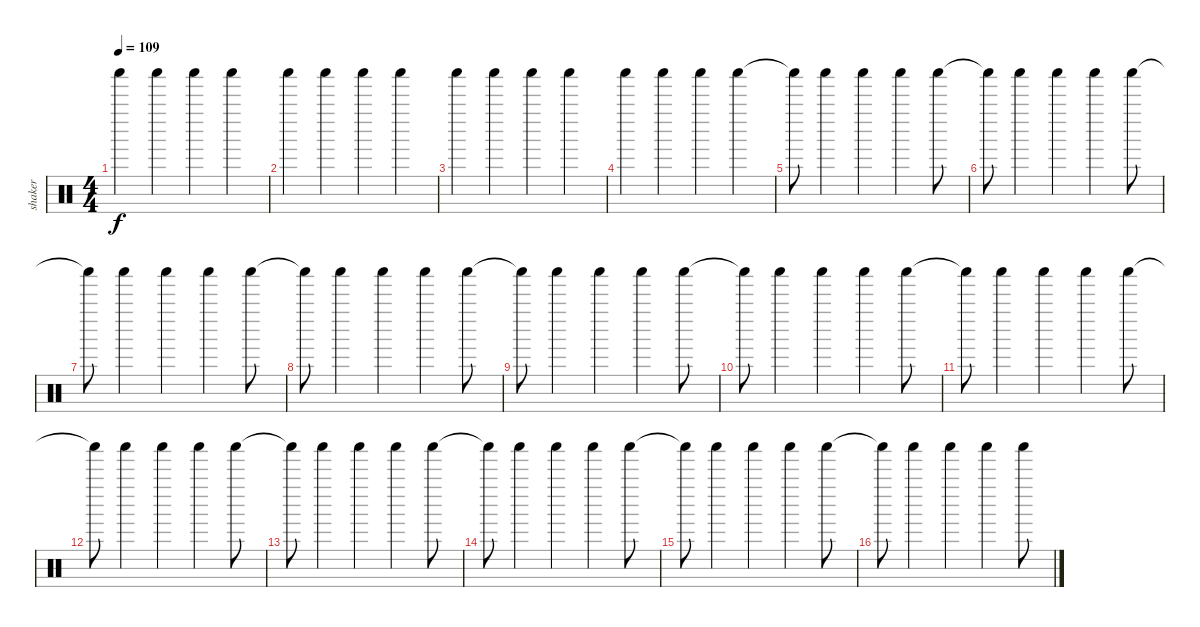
\track ("shaker" "shaker") {instrument percussion}
\staff {score}
\articulation defaults
\ts (4 4)
\tempo 109
\clef neutral
\ks c "Shaker (hit)".4{dy f} "Shaker (hit)".4 "Shaker (hit)".4 "Shaker (hit)".4
|
"Shaker (hit)".4 "Shaker (hit)".4 "Shaker (hit)".4 "Shaker (hit)".4 |
"Shaker (hit)".4 "Shaker (hit)".4 "Shaker (hit)".4 "Shaker (hit)".4 |
"Shaker (hit)".4 "Shaker (hit)".4 "Shaker (hit)".4 "Shaker (hit)".4 |
"Shaker (hit)"{t}.8 "Shaker (hit)".4 "Shaker (hit)".4 "Shaker (hit)".4 "Shaker (hit)".8 |
"Shaker (hit)"{t}.8 "Shaker (hit)".4 "Shaker (hit)".4 "Shaker (hit)".4 "Shaker (hit)".8 |
"Shaker (hit)"{t}.8 "Shaker (hit)".4 "Shaker (hit)".4 "Shaker (hit)".4 "Shaker (hit)".8 |
"Shaker (hit)"{t}.8 "Shaker (hit)".4 "Shaker (hit)".4 "Shaker (hit)".4 "Shaker (hit)".8 |
"Shaker (hit)"{t}.8 "Shaker (hit)".4 "Shaker (hit)".4 "Shaker (hit)".4 "Shaker (hit)".8 |
"Shaker (hit)"{t}.8 "Shaker (hit)".4 "Shaker (hit)".4 "Shaker (hit)".4 "Shaker (hit)".8 |
"Shaker (hit)"{t}.8 "Shaker (hit)".4 "Shaker (hit)".4 "Shaker (hit)".4 "Shaker (hit)".8 |
"Shaker (hit)"{t}.8 "Shaker (hit)".4 "Shaker (hit)".4 "Shaker (hit)".4 "Shaker (hit)".8 |
"Shaker (hit)"{t}.8 "Shaker (hit)".4 "Shaker (hit)".4 "Shaker (hit)".4 "Shaker (hit)".8 |
"Shaker (hit)"{t}.8 "Shaker (hit)".4 "Shaker (hit)".4 "Shaker (hit)".4 "Shaker (hit)".8 |
"Shaker (hit)"{t}.8 "Shaker (hit)".4 "Shaker (hit)".4 "Shaker (hit)".4 "Shaker (hit)".8 |
"Shaker (hit)"{t}.8 "Shaker (hit)".4 "Shaker (hit)".4 "Shaker (hit)".4 "Shaker (hit)".8
